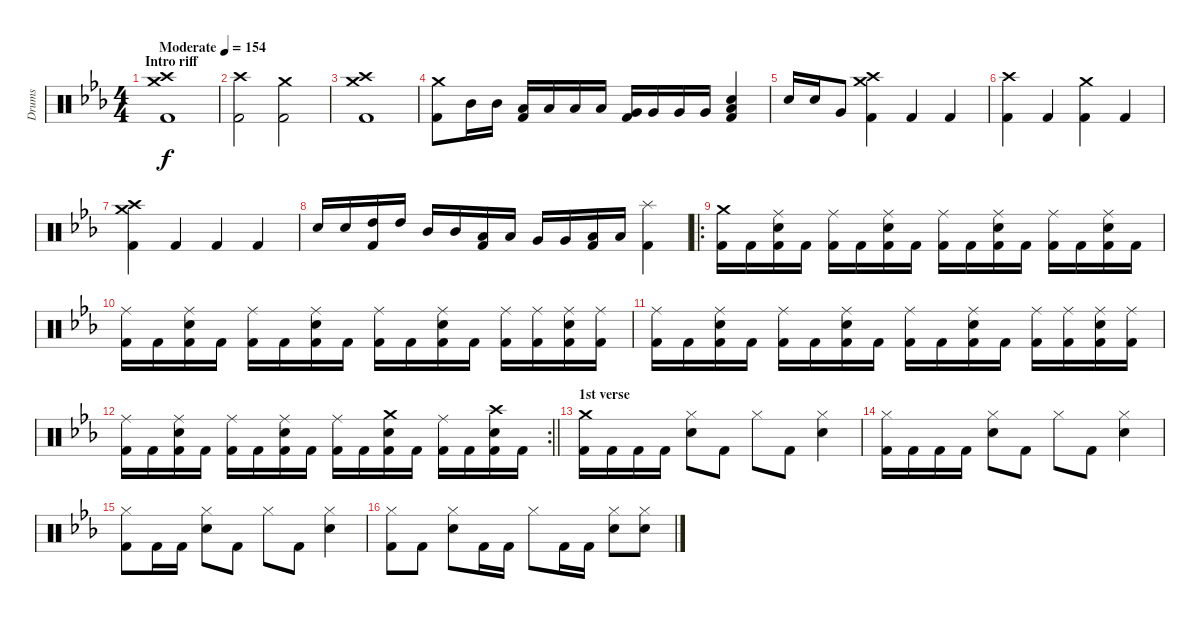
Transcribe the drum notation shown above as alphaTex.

\track ("Drums" "Drums") {instrument percussion}
\staff {score}
\articulation defaults
\ts (4 4)
\section ("" "Intro riff")
\tempo (154 "Moderate")
\clef neutral
\ks cminor
("Crash medium (hit)" "Crash high (hit)" "Kick (hit) 2").1{dy f} |
("Crash high (hit)" "Kick (hit) 2").2 ("Crash medium (hit)" "Kick (hit) 2").2 |
("Crash medium (hit)" "Crash high (hit)" "Kick (hit) 2").1 |
("Crash medium (hit)" "Kick (hit) 2").8 "Mid Tom (hit)".16 "Mid Tom (hit)".16 ("Low Tom (hit)" "Kick (hit) 2").16 "Low Tom (hit)".16 "Low Tom (hit)".16 "Low Tom (hit)".16 ("Very Low Tom (hit)" "Kick (hit) 2").16 "Very Low Tom (hit)".16 "Very Low Tom (hit)".16 "Very Low Tom (hit)".16 ("Low Floor Tom (hit)" "Snare (hit) 2" "Kick (hit) 2").4 |
"Snare (hit) 2".16 "Snare (hit) 2".16 "Very Low Tom (hit)".8 ("Crash medium (hit)" "Crash high (hit)" "Kick (hit) 2").4 "Kick (hit) 2".4 "Kick (hit) 2".4 |
("Crash high (hit)" "Kick (hit) 2").4 "Kick (hit) 2".4 ("Crash medium (hit)" "Kick (hit) 2").4 "Kick (hit) 2".4 |
("Crash medium (hit)" "Crash high (hit)" "Kick (hit) 2").4 "Kick (hit) 2".4 "Kick (hit) 2".4 "Kick (hit) 2".4 |
"Snare (hit) 2".16 "Snare (hit) 2".16 ("High Tom (hit)" "Kick (hit) 2").16 "High Tom (hit)".16 "Mid Tom (hit)".16 "Mid Tom (hit)".16 ("Low Tom (hit)" "Kick (hit) 2").16 "Low Tom (hit)".16 "Very Low Tom (hit)".16 "Very Low Tom (hit)".16 ("Low Floor Tom (hit)" "Kick (hit) 2").16 "Low Floor Tom (hit)".16 ("Splash (hit)" "Kick (hit) 2").4 |
\ro
("Crash medium (hit)" "Kick (hit) 2").16 "Kick (hit) 2".16 ("Ride (middle)" "Snare (hit) 2" "Kick (hit) 2").16 "Kick (hit) 2".16 ("Ride (middle)" "Kick (hit) 2").16 "Kick (hit) 2".16 ("Ride (middle)" "Snare (hit) 2" "Kick (hit) 2").16 "Kick (hit) 2".16 ("Ride (middle)" "Kick (hit) 2").16 "Kick (hit) 2".16 ("Ride (middle)" "Snare (hit) 2" "Kick (hit) 2").16 "Kick (hit) 2".16 ("Ride (middle)" "Kick (hit) 2").16 "Kick (hit) 2".16 ("Ride (middle)" "Snare (hit) 2" "Kick (hit) 2").16 "Kick (hit) 2".16 |
("Ride (middle)" "Kick (hit) 2").16 "Kick (hit) 2".16 ("Ride (middle)" "Snare (hit) 2" "Kick (hit) 2").16 "Kick (hit) 2".16 ("Ride (middle)" "Kick (hit) 2").16 "Kick (hit) 2".16 ("Ride (middle)" "Snare (hit) 2" "Kick (hit) 2").16 "Kick (hit) 2".16 ("Ride (middle)" "Kick (hit) 2").16 "Kick (hit) 2".16 ("Ride (middle)" "Snare (hit) 2" "Kick (hit) 2").16 "Kick (hit) 2".16 ("Ride (middle)" "Kick (hit) 2").16 ("Ride (middle)" "Kick (hit) 2").16 ("Ride (middle)" "Snare (hit) 2" "Kick (hit) 2").16 ("Ride (middle)" "Kick (hit) 2").16 |
("Ride (middle)" "Kick (hit) 2").16 "Kick (hit) 2".16 ("Ride (middle)" "Snare (hit) 2" "Kick (hit) 2").16 "Kick (hit) 2".16 ("Ride (middle)" "Kick (hit) 2").16 "Kick (hit) 2".16 ("Ride (middle)" "Snare (hit) 2" "Kick (hit) 2").16 "Kick (hit) 2".16 ("Ride (middle)" "Kick (hit) 2").16 "Kick (hit) 2".16 ("Ride (middle)" "Snare (hit) 2" "Kick (hit) 2").16 "Kick (hit) 2".16 ("Ride (middle)" "Kick (hit) 2").16 ("Ride (middle)" "Kick (hit) 2").16 ("Ride (middle)" "Snare (hit) 2" "Kick (hit) 2").16 ("Ride (middle)" "Kick (hit) 2").16 |
\rc 2
\barLineRight lightlight
("Ride (middle)" "Kick (hit) 2").16 "Kick (hit) 2".16 ("Ride (middle)" "Snare (hit) 2" "Kick (hit) 2").16 "Kick (hit) 2".16 ("Ride (middle)" "Kick (hit) 2").16 "Kick (hit) 2".16 ("Ride (middle)" "Snare (hit) 2" "Kick (hit) 2").16 "Kick (hit) 2".16 ("Ride (middle)" "Kick (hit) 2").16 "Kick (hit) 2".16 ("Crash medium (hit)" "Snare (hit) 2" "Kick (hit) 2").16 "Kick (hit) 2".16 ("Ride (middle)" "Kick (hit) 2").16 "Kick (hit) 2".16 ("Crash high (hit)" "Snare (hit) 2" "Kick (hit) 2").16 "Kick (hit) 2".16 |
\section ("" "1st verse")
("Crash medium (hit)" "Kick (hit) 2").16 "Kick (hit) 2".16 "Kick (hit) 2".16 "Kick (hit) 2".16 ("Hi-Hat (closed)" "Snare (hit) 2").8 "Kick (hit) 2".8 "Hi-Hat (closed)".8 "Kick (hit) 2".8 ("Hi-Hat (closed)" "Snare (hit) 2").4 |
("Hi-Hat (closed)" "Kick (hit) 2").16 "Kick (hit) 2".16 "Kick (hit) 2".16 "Kick (hit) 2".16 ("Hi-Hat (closed)" "Snare (hit) 2").8 "Kick (hit) 2".8 "Hi-Hat (closed)".8 "Kick (hit) 2".8 ("Hi-Hat (closed)" "Snare (hit) 2").4 |
("Hi-Hat (closed)" "Kick (hit) 2").8 "Kick (hit) 2".16 "Kick (hit) 2".16 ("Hi-Hat (closed)" "Snare (hit) 2").8 "Kick (hit) 2".8 "Hi-Hat (closed)".8 "Kick (hit) 2".8 ("Hi-Hat (closed)" "Snare (hit) 2").4 |
("Hi-Hat (closed)" "Kick (hit) 2").8 "Kick (hit) 2".8 ("Hi-Hat (closed)" "Snare (hit) 2").8 "Kick (hit) 2".16 "Kick (hit) 2".16 "Hi-Hat (closed)".8 "Kick (hit) 2".16 "Kick (hit) 2".16 ("Hi-Hat (closed)" "Snare (hit) 2").8 ("Hi-Hat (closed)" "Snare (hit) 2").8
